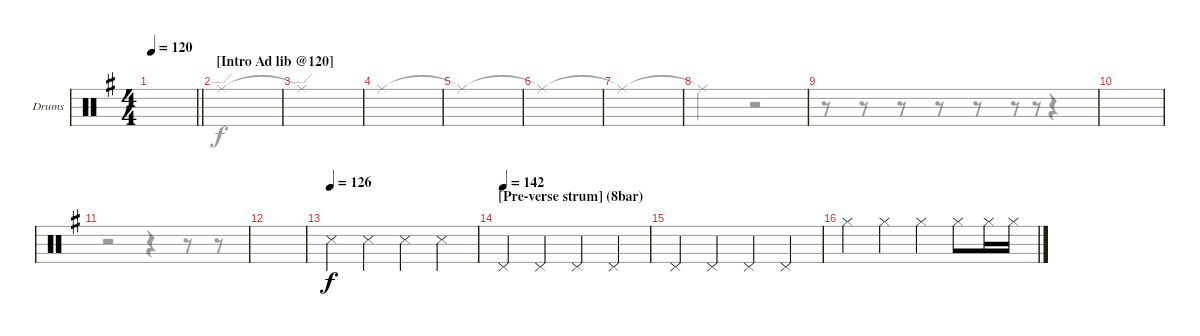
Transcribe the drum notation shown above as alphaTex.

\bracketExtendMode groupsimilarinstruments
\firstSystemTrackNameOrientation horizontal
\otherSystemsTrackNameOrientation horizontal
\track ("Drumkit" "Drums") {instrument percussion}
\staff {score}
\articulation defaults
\voice
\ts (4 4)
\tempo 120
\clef neutral
\barLineRight lightlight
\ks eminor
|
\section ("" "[Intro Ad lib @120]")
|
|
|
|
|
|
|
|
|
|
|
\tempo (126)
"Snare (side stick) 3".4 "Snare (side stick) 3".4 "Snare (side stick) 3".4 "Snare (side stick) 3".4 |
\section ("" "[Pre-verse strum] (8bar)")
\tempo (142 0.00625)
"Pedal Hi-Hat (hit)".4 "Pedal Hi-Hat (hit)".4 "Pedal Hi-Hat (hit)".4 "Pedal Hi-Hat (hit)".4 |
"Pedal Hi-Hat (hit)".4 "Pedal Hi-Hat (hit)".4 "Pedal Hi-Hat (hit)".4 "Pedal Hi-Hat (hit)".4 |
"Hi-Hat (closed)".4 "Hi-Hat (closed)".4 "Hi-Hat (closed)".4 "Hi-Hat (closed)".8 "Hi-Hat (closed)".16 "Hi-Hat (closed)".16
\voice
\clef neutral
\ottava regular
\simile none
\barLineRight lightlight
\ks eminor
|
"Ride (edge)".1 |
"Ride (edge)"{t}.1 |
"Ride (middle)".1 |
"Ride (middle)"{t}.1 |
"Ride (middle)"{t}.1 |
"Ride (middle)"{t}.1 |
"Ride (middle)"{t}.2 r.2 |
r.8 r.8 r.8 r.8 r.8 r.8 r.8{gr} r.4 |
|
r.2 r.4 r.8 r.8 |
|
|
|
|
